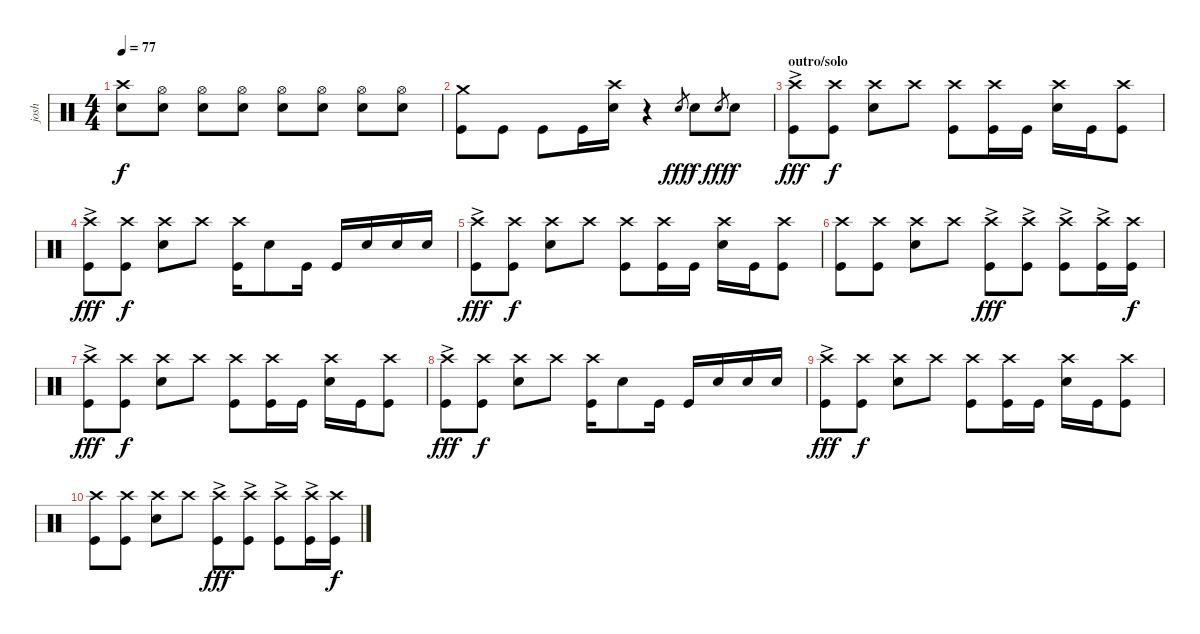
\track ("josh" "josh") {instrument percussion}
\staff {score}
\articulation defaults
\ts (4 4)
\tempo 77
\clef neutral
\ks c
("Crash high (hit)" "Snare (hit) 2").8{dy f} ("Hi-Hat (open)" "Snare (hit) 2").8 ("Hi-Hat (open)" "Snare (hit) 2").8 ("Hi-Hat (open)" "Snare (hit) 2").8 ("Hi-Hat (open)" "Snare (hit) 2").8 ("Hi-Hat (open)" "Snare (hit) 2").8 ("Hi-Hat (open)" "Snare (hit) 2").8 ("Hi-Hat (open)" "Snare (hit) 2").8 |
("Crash medium (hit)" "Kick (hit)").8 "Kick (hit)".8 "Kick (hit)".8 "Kick (hit)".16 ("Crash high (hit)" "Snare (hit) 2").16 r.4 "Snare (hit) 2".8{gr dy fff} "Snare (hit) 2".8{dy f} "Snare (hit) 2".8{gr dy fff} "Snare (hit) 2".8{dy f} |
\section ("" "outro/solo")
("Crash high (hit)"{ac} "Kick (hit)").8{dy fff} ("Crash high (hit)" "Kick (hit)").8{dy f} ("Crash high (hit)" "Snare (hit) 2").8 "Crash high (hit)".8 ("Crash high (hit)" "Kick (hit)").8 ("Crash high (hit)" "Kick (hit)").16 "Kick (hit)".16 ("Crash high (hit)" "Snare (hit) 2").16 "Kick (hit)".16 ("Crash high (hit)" "Kick (hit)").8 |
("Crash high (hit)"{ac} "Kick (hit)").8{dy fff} ("Crash high (hit)" "Kick (hit)").8{dy f} ("Crash high (hit)" "Snare (hit) 2").8 "Crash high (hit)".8 ("Crash high (hit)" "Kick (hit)").16 "Snare (hit) 2".8 "Kick (hit)".16 "Kick (hit)".16 "Snare (hit) 2".16 "Snare (hit) 2".16 "Snare (hit) 2".16 |
("Crash high (hit)"{ac} "Kick (hit)").8{dy fff} ("Crash high (hit)" "Kick (hit)").8{dy f} ("Crash high (hit)" "Snare (hit) 2").8 "Crash high (hit)".8 ("Crash high (hit)" "Kick (hit)").8 ("Crash high (hit)" "Kick (hit)").16 "Kick (hit)".16 ("Crash high (hit)" "Snare (hit) 2").16 "Kick (hit)".16 ("Crash high (hit)" "Kick (hit)").8 |
("Crash high (hit)" "Kick (hit)").8 ("Crash high (hit)" "Kick (hit)").8 ("Crash high (hit)" "Snare (hit) 2").8 "Crash high (hit)".8 ("Crash high (hit)"{ac} "Kick (hit)").8{dy fff} ("Crash high (hit)"{ac} "Kick (hit)").8 ("Crash high (hit)"{ac} "Kick (hit)").8 ("Crash high (hit)"{ac} "Kick (hit)").16 ("Crash high (hit)" "Kick (hit)").16{dy f} |
("Crash high (hit)"{ac} "Kick (hit)").8{dy fff} ("Crash high (hit)" "Kick (hit)").8{dy f} ("Crash high (hit)" "Snare (hit) 2").8 "Crash high (hit)".8 ("Crash high (hit)" "Kick (hit)").8 ("Crash high (hit)" "Kick (hit)").16 "Kick (hit)".16 ("Crash high (hit)" "Snare (hit) 2").16 "Kick (hit)".16 ("Crash high (hit)" "Kick (hit)").8 |
("Crash high (hit)"{ac} "Kick (hit)").8{dy fff} ("Crash high (hit)" "Kick (hit)").8{dy f} ("Crash high (hit)" "Snare (hit) 2").8 "Crash high (hit)".8 ("Crash high (hit)" "Kick (hit)").16 "Snare (hit) 2".8 "Kick (hit)".16 "Kick (hit)".16 "Snare (hit) 2".16 "Snare (hit) 2".16 "Snare (hit) 2".16 |
("Crash high (hit)"{ac} "Kick (hit)").8{dy fff} ("Crash high (hit)" "Kick (hit)").8{dy f} ("Crash high (hit)" "Snare (hit) 2").8 "Crash high (hit)".8 ("Crash high (hit)" "Kick (hit)").8 ("Crash high (hit)" "Kick (hit)").16 "Kick (hit)".16 ("Crash high (hit)" "Snare (hit) 2").16 "Kick (hit)".16 ("Crash high (hit)" "Kick (hit)").8 |
("Crash high (hit)" "Kick (hit)").8 ("Crash high (hit)" "Kick (hit)").8 ("Crash high (hit)" "Snare (hit) 2").8 "Crash high (hit)".8 ("Crash high (hit)"{ac} "Kick (hit)").8{dy fff} ("Crash high (hit)"{ac} "Kick (hit)").8 ("Crash high (hit)"{ac} "Kick (hit)").8 ("Crash high (hit)"{ac} "Kick (hit)").16 ("Crash high (hit)" "Kick (hit)").16{dy f}
